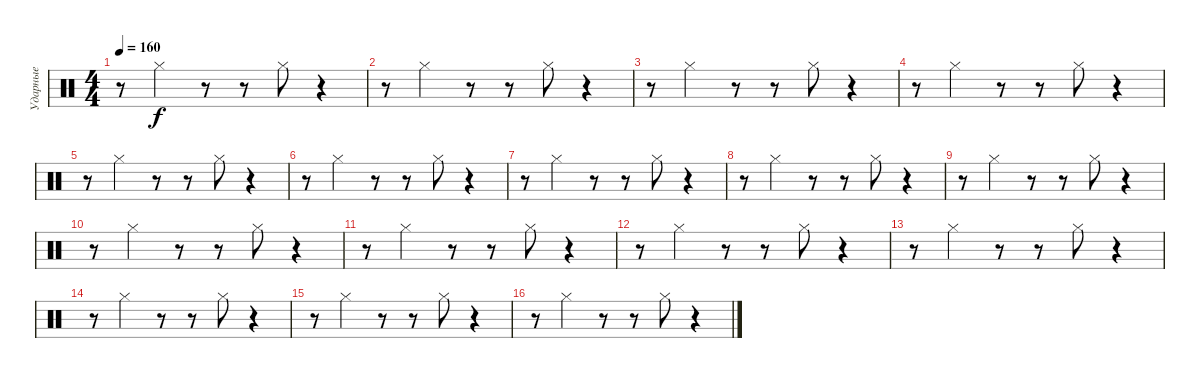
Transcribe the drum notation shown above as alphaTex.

\track ("Ударные" "Ударные") {instrument percussion}
\staff {score}
\articulation defaults
\ts (4 4)
\tempo 160
\clef neutral
\ks c
r.8{dy f} "Hi-Hat (closed)".4 r.8 r.8 "Hi-Hat (closed)".8 r.4 |
r.8 "Hi-Hat (closed)".4 r.8 r.8 "Hi-Hat (closed)".8 r.4 |
r.8 "Hi-Hat (closed)".4 r.8 r.8 "Hi-Hat (closed)".8 r.4 |
r.8 "Hi-Hat (closed)".4 r.8 r.8 "Hi-Hat (closed)".8 r.4 |
r.8 "Hi-Hat (closed)".4 r.8 r.8 "Hi-Hat (closed)".8 r.4 |
r.8 "Hi-Hat (closed)".4 r.8 r.8 "Hi-Hat (closed)".8 r.4 |
r.8 "Hi-Hat (closed)".4 r.8 r.8 "Hi-Hat (closed)".8 r.4 |
r.8 "Hi-Hat (closed)".4 r.8 r.8 "Hi-Hat (closed)".8 r.4 |
r.8 "Hi-Hat (closed)".4 r.8 r.8 "Hi-Hat (closed)".8 r.4 |
r.8 "Hi-Hat (closed)".4 r.8 r.8 "Hi-Hat (closed)".8 r.4 |
r.8 "Hi-Hat (closed)".4 r.8 r.8 "Hi-Hat (closed)".8 r.4 |
r.8 "Hi-Hat (closed)".4 r.8 r.8 "Hi-Hat (closed)".8 r.4 |
r.8 "Hi-Hat (closed)".4 r.8 r.8 "Hi-Hat (closed)".8 r.4 |
r.8 "Hi-Hat (closed)".4 r.8 r.8 "Hi-Hat (closed)".8 r.4 |
r.8 "Hi-Hat (closed)".4 r.8 r.8 "Hi-Hat (closed)".8 r.4 |
r.8 "Hi-Hat (closed)".4 r.8 r.8 "Hi-Hat (closed)".8 r.4
